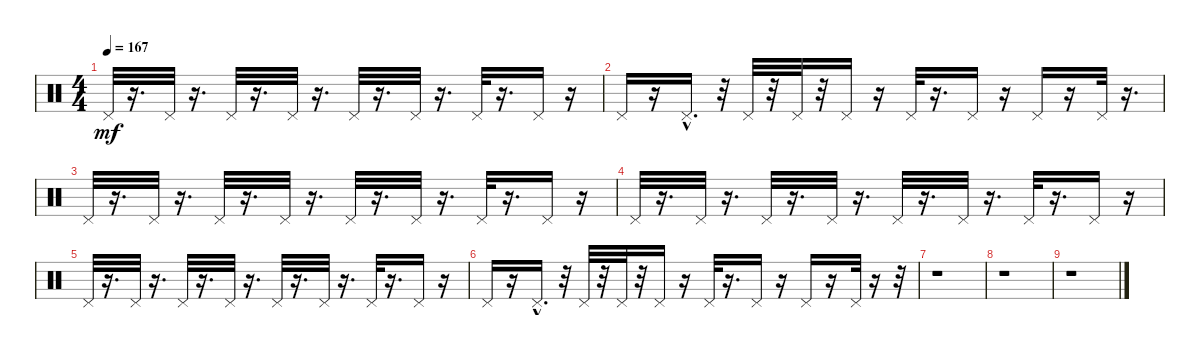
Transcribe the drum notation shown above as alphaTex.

\track "" {instrument percussion}
\staff {score}
\articulation defaults
\ts (4 4)
\tempo 167
\clef neutral
\ks c "Pedal Hi-Hat (hit)".32{dy mf}
r.16{d} "Pedal Hi-Hat (hit)".32 r.16{d} "Pedal Hi-Hat (hit)".32 r.16{d} "Pedal Hi-Hat (hit)".32 r.16{d} "Pedal Hi-Hat (hit)".32 r.16{d} "Pedal Hi-Hat (hit)".32 r.16{d} "Pedal Hi-Hat (hit)".32 r.16{d} "Pedal Hi-Hat (hit)".16 r.16 |
"Pedal Hi-Hat (hit)".16 r.16 "Pedal Hi-Hat (hit)"{hac}.16{d} r.32 "Pedal Hi-Hat (hit)".32 r.32 "Pedal Hi-Hat (hit)".32 r.32 "Pedal Hi-Hat (hit)".16 r.16 "Pedal Hi-Hat (hit)".32 r.16{d} "Pedal Hi-Hat (hit)".16 r.16 "Pedal Hi-Hat (hit)".16 r.16 "Pedal Hi-Hat (hit)".32 r.16{d} |
"Pedal Hi-Hat (hit)".32 r.16{d} "Pedal Hi-Hat (hit)".32 r.16{d} "Pedal Hi-Hat (hit)".32 r.16{d} "Pedal Hi-Hat (hit)".32 r.16{d} "Pedal Hi-Hat (hit)".32 r.16{d} "Pedal Hi-Hat (hit)".32 r.16{d} "Pedal Hi-Hat (hit)".32 r.16{d} "Pedal Hi-Hat (hit)".16 r.16 |
"Pedal Hi-Hat (hit)".32 r.16{d} "Pedal Hi-Hat (hit)".32 r.16{d} "Pedal Hi-Hat (hit)".32 r.16{d} "Pedal Hi-Hat (hit)".32 r.16{d} "Pedal Hi-Hat (hit)".32 r.16{d} "Pedal Hi-Hat (hit)".32 r.16{d} "Pedal Hi-Hat (hit)".32 r.16{d} "Pedal Hi-Hat (hit)".16 r.16 |
"Pedal Hi-Hat (hit)".32 r.16{d} "Pedal Hi-Hat (hit)".32 r.16{d} "Pedal Hi-Hat (hit)".32 r.16{d} "Pedal Hi-Hat (hit)".32 r.16{d} "Pedal Hi-Hat (hit)".32 r.16{d} "Pedal Hi-Hat (hit)".32 r.16{d} "Pedal Hi-Hat (hit)".32 r.16{d} "Pedal Hi-Hat (hit)".16 r.16 |
"Pedal Hi-Hat (hit)".16 r.16 "Pedal Hi-Hat (hit)"{hac}.16{d} r.32 "Pedal Hi-Hat (hit)".32 r.32 "Pedal Hi-Hat (hit)".32 r.32 "Pedal Hi-Hat (hit)".16 r.16 "Pedal Hi-Hat (hit)".32 r.16{d} "Pedal Hi-Hat (hit)".16 r.16 "Pedal Hi-Hat (hit)".16 r.16 "Pedal Hi-Hat (hit)".32 r.16 r.32 |
r.1 |
r.1 |
r.1
